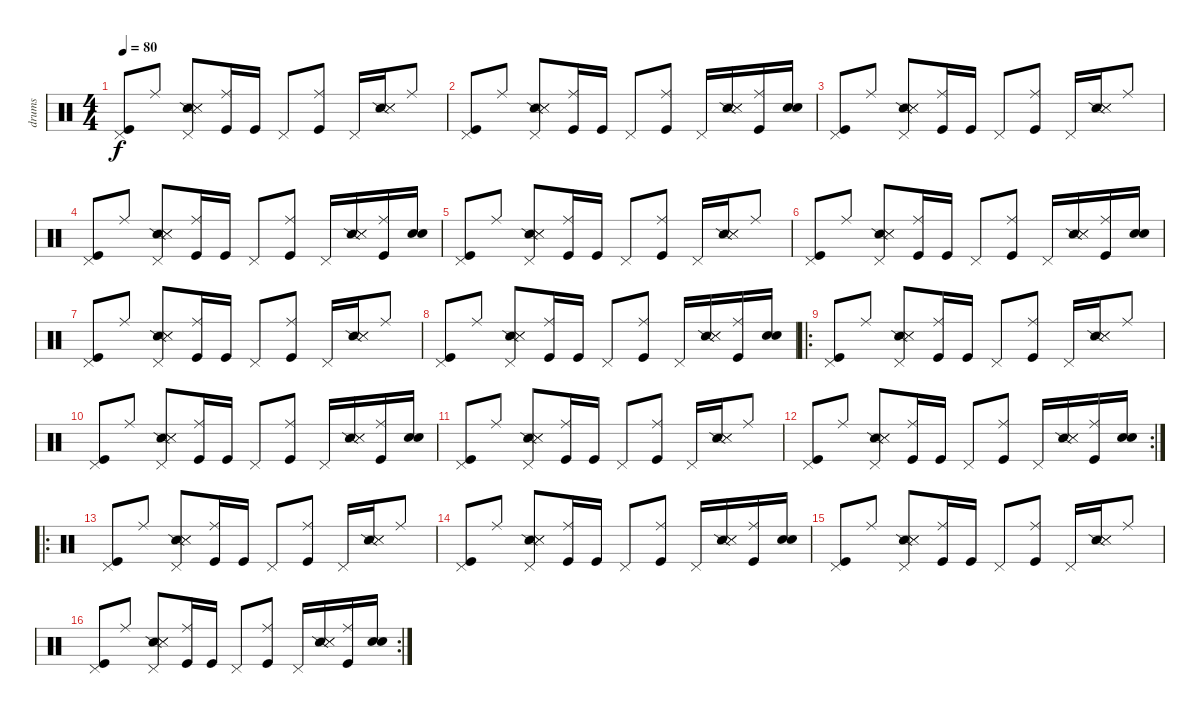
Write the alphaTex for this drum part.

\track ("drums" "drums") {instrument percussion}
\staff {score}
\articulation defaults
\ts (4 4)
\tempo 80
\clef neutral
\ks c
("Pedal Hi-Hat (hit)" "Kick (hit)").8{dy f} "Ride (middle)".8 ("Pedal Hi-Hat (hit)" "Snare (side stick) 2" "Metronome (hit)" "Metronome (hit)").8 ("Ride (middle)" "Kick (hit)").16 "Kick (hit)".16 "Pedal Hi-Hat (hit)".8 ("Ride (middle)" "Kick (hit)").8 "Pedal Hi-Hat (hit)".16 ("Snare (side stick) 2" "Metronome (hit)" "Metronome (hit)").16 "Ride (middle)".8 |
("Pedal Hi-Hat (hit)" "Kick (hit)").8 "Ride (middle)".8 ("Pedal Hi-Hat (hit)" "Snare (side stick) 2" "Metronome (hit)" "Metronome (hit)").8 ("Ride (middle)" "Kick (hit)").16 "Kick (hit)".16 "Pedal Hi-Hat (hit)".8 ("Ride (middle)" "Kick (hit)").8 "Pedal Hi-Hat (hit)".16 ("Snare (side stick) 2" "Metronome (hit)" "Metronome (hit)").16 ("Ride (middle)" "Kick (hit)").16 ("Snare (hit) 2" "Snare (hit) 2").16 |
("Pedal Hi-Hat (hit)" "Kick (hit)").8 "Ride (middle)".8 ("Pedal Hi-Hat (hit)" "Snare (side stick) 2" "Metronome (hit)" "Metronome (hit)").8 ("Ride (middle)" "Kick (hit)").16 "Kick (hit)".16 "Pedal Hi-Hat (hit)".8 ("Ride (middle)" "Kick (hit)").8 "Pedal Hi-Hat (hit)".16 ("Snare (side stick) 2" "Metronome (hit)" "Metronome (hit)").16 "Ride (middle)".8 |
("Pedal Hi-Hat (hit)" "Kick (hit)").8 "Ride (middle)".8 ("Pedal Hi-Hat (hit)" "Snare (side stick) 2" "Metronome (hit)" "Metronome (hit)").8 ("Ride (middle)" "Kick (hit)").16 "Kick (hit)".16 "Pedal Hi-Hat (hit)".8 ("Ride (middle)" "Kick (hit)").8 "Pedal Hi-Hat (hit)".16 ("Snare (side stick) 2" "Metronome (hit)" "Metronome (hit)").16 ("Ride (middle)" "Kick (hit)").16 ("Snare (hit) 2" "Snare (hit) 2").16 |
("Pedal Hi-Hat (hit)" "Kick (hit)").8 "Ride (middle)".8 ("Pedal Hi-Hat (hit)" "Snare (side stick) 2" "Metronome (hit)" "Metronome (hit)").8 ("Ride (middle)" "Kick (hit)").16 "Kick (hit)".16 "Pedal Hi-Hat (hit)".8 ("Ride (middle)" "Kick (hit)").8 "Pedal Hi-Hat (hit)".16 ("Snare (side stick) 2" "Metronome (hit)" "Metronome (hit)").16 "Ride (middle)".8 |
("Pedal Hi-Hat (hit)" "Kick (hit)").8 "Ride (middle)".8 ("Pedal Hi-Hat (hit)" "Snare (side stick) 2" "Metronome (hit)" "Metronome (hit)").8 ("Ride (middle)" "Kick (hit)").16 "Kick (hit)".16 "Pedal Hi-Hat (hit)".8 ("Ride (middle)" "Kick (hit)").8 "Pedal Hi-Hat (hit)".16 ("Snare (side stick) 2" "Metronome (hit)" "Metronome (hit)").16 ("Ride (middle)" "Kick (hit)").16 ("Snare (hit) 2" "Snare (hit) 2").16 |
("Pedal Hi-Hat (hit)" "Kick (hit)").8 "Ride (middle)".8 ("Pedal Hi-Hat (hit)" "Snare (side stick) 2" "Metronome (hit)" "Metronome (hit)").8 ("Ride (middle)" "Kick (hit)").16 "Kick (hit)".16 "Pedal Hi-Hat (hit)".8 ("Ride (middle)" "Kick (hit)").8 "Pedal Hi-Hat (hit)".16 ("Snare (side stick) 2" "Metronome (hit)" "Metronome (hit)").16 "Ride (middle)".8 |
("Pedal Hi-Hat (hit)" "Kick (hit)").8 "Ride (middle)".8 ("Pedal Hi-Hat (hit)" "Snare (side stick) 2" "Metronome (hit)" "Metronome (hit)").8 ("Ride (middle)" "Kick (hit)").16 "Kick (hit)".16 "Pedal Hi-Hat (hit)".8 ("Ride (middle)" "Kick (hit)").8 "Pedal Hi-Hat (hit)".16 ("Snare (side stick) 2" "Metronome (hit)" "Metronome (hit)").16 ("Ride (middle)" "Kick (hit)").16 ("Snare (hit) 2" "Snare (hit) 2").16 |
\ro
("Pedal Hi-Hat (hit)" "Kick (hit)").8 "Ride (middle)".8 ("Pedal Hi-Hat (hit)" "Snare (side stick) 2" "Metronome (hit)" "Metronome (hit)").8 ("Ride (middle)" "Kick (hit)").16 "Kick (hit)".16 "Pedal Hi-Hat (hit)".8 ("Ride (middle)" "Kick (hit)").8 "Pedal Hi-Hat (hit)".16 ("Snare (side stick) 2" "Metronome (hit)" "Metronome (hit)").16 "Ride (middle)".8 |
("Pedal Hi-Hat (hit)" "Kick (hit)").8 "Ride (middle)".8 ("Pedal Hi-Hat (hit)" "Snare (side stick) 2" "Metronome (hit)" "Metronome (hit)").8 ("Ride (middle)" "Kick (hit)").16 "Kick (hit)".16 "Pedal Hi-Hat (hit)".8 ("Ride (middle)" "Kick (hit)").8 "Pedal Hi-Hat (hit)".16 ("Snare (side stick) 2" "Metronome (hit)" "Metronome (hit)").16 ("Ride (middle)" "Kick (hit)").16 ("Snare (hit) 2" "Snare (hit) 2").16 |
("Pedal Hi-Hat (hit)" "Kick (hit)").8 "Ride (middle)".8 ("Pedal Hi-Hat (hit)" "Snare (side stick) 2" "Metronome (hit)" "Metronome (hit)").8 ("Ride (middle)" "Kick (hit)").16 "Kick (hit)".16 "Pedal Hi-Hat (hit)".8 ("Ride (middle)" "Kick (hit)").8 "Pedal Hi-Hat (hit)".16 ("Snare (side stick) 2" "Metronome (hit)" "Metronome (hit)").16 "Ride (middle)".8 |
\rc 2
("Pedal Hi-Hat (hit)" "Kick (hit)").8 "Ride (middle)".8 ("Pedal Hi-Hat (hit)" "Snare (side stick) 2" "Metronome (hit)" "Metronome (hit)").8 ("Ride (middle)" "Kick (hit)").16 "Kick (hit)".16 "Pedal Hi-Hat (hit)".8 ("Ride (middle)" "Kick (hit)").8 "Pedal Hi-Hat (hit)".16 ("Snare (side stick) 2" "Metronome (hit)" "Metronome (hit)").16 ("Ride (middle)" "Kick (hit)").16 ("Snare (hit) 2" "Snare (hit) 2").16 |
\ro
("Pedal Hi-Hat (hit)" "Kick (hit)").8 "Ride (middle)".8 ("Pedal Hi-Hat (hit)" "Snare (side stick) 2" "Metronome (hit)" "Metronome (hit)").8 ("Ride (middle)" "Kick (hit)").16 "Kick (hit)".16 "Pedal Hi-Hat (hit)".8 ("Ride (middle)" "Kick (hit)").8 "Pedal Hi-Hat (hit)".16 ("Snare (side stick) 2" "Metronome (hit)" "Metronome (hit)").16 "Ride (middle)".8 |
("Pedal Hi-Hat (hit)" "Kick (hit)").8 "Ride (middle)".8 ("Pedal Hi-Hat (hit)" "Snare (side stick) 2" "Metronome (hit)" "Metronome (hit)").8 ("Ride (middle)" "Kick (hit)").16 "Kick (hit)".16 "Pedal Hi-Hat (hit)".8 ("Ride (middle)" "Kick (hit)").8 "Pedal Hi-Hat (hit)".16 ("Snare (side stick) 2" "Metronome (hit)" "Metronome (hit)").16 ("Ride (middle)" "Kick (hit)").16 ("Snare (hit) 2" "Snare (hit) 2").16 |
("Pedal Hi-Hat (hit)" "Kick (hit)").8 "Ride (middle)".8 ("Pedal Hi-Hat (hit)" "Snare (side stick) 2" "Metronome (hit)" "Metronome (hit)").8 ("Ride (middle)" "Kick (hit)").16 "Kick (hit)".16 "Pedal Hi-Hat (hit)".8 ("Ride (middle)" "Kick (hit)").8 "Pedal Hi-Hat (hit)".16 ("Snare (side stick) 2" "Metronome (hit)" "Metronome (hit)").16 "Ride (middle)".8 |
\rc 2
("Pedal Hi-Hat (hit)" "Kick (hit)").8 "Ride (middle)".8 ("Pedal Hi-Hat (hit)" "Snare (side stick) 2" "Metronome (hit)" "Metronome (hit)").8 ("Ride (middle)" "Kick (hit)").16 "Kick (hit)".16 "Pedal Hi-Hat (hit)".8 ("Ride (middle)" "Kick (hit)").8 "Pedal Hi-Hat (hit)".16 ("Snare (side stick) 2" "Metronome (hit)" "Metronome (hit)").16 ("Ride (middle)" "Kick (hit)").16 ("Snare (hit) 2" "Snare (hit) 2").16
